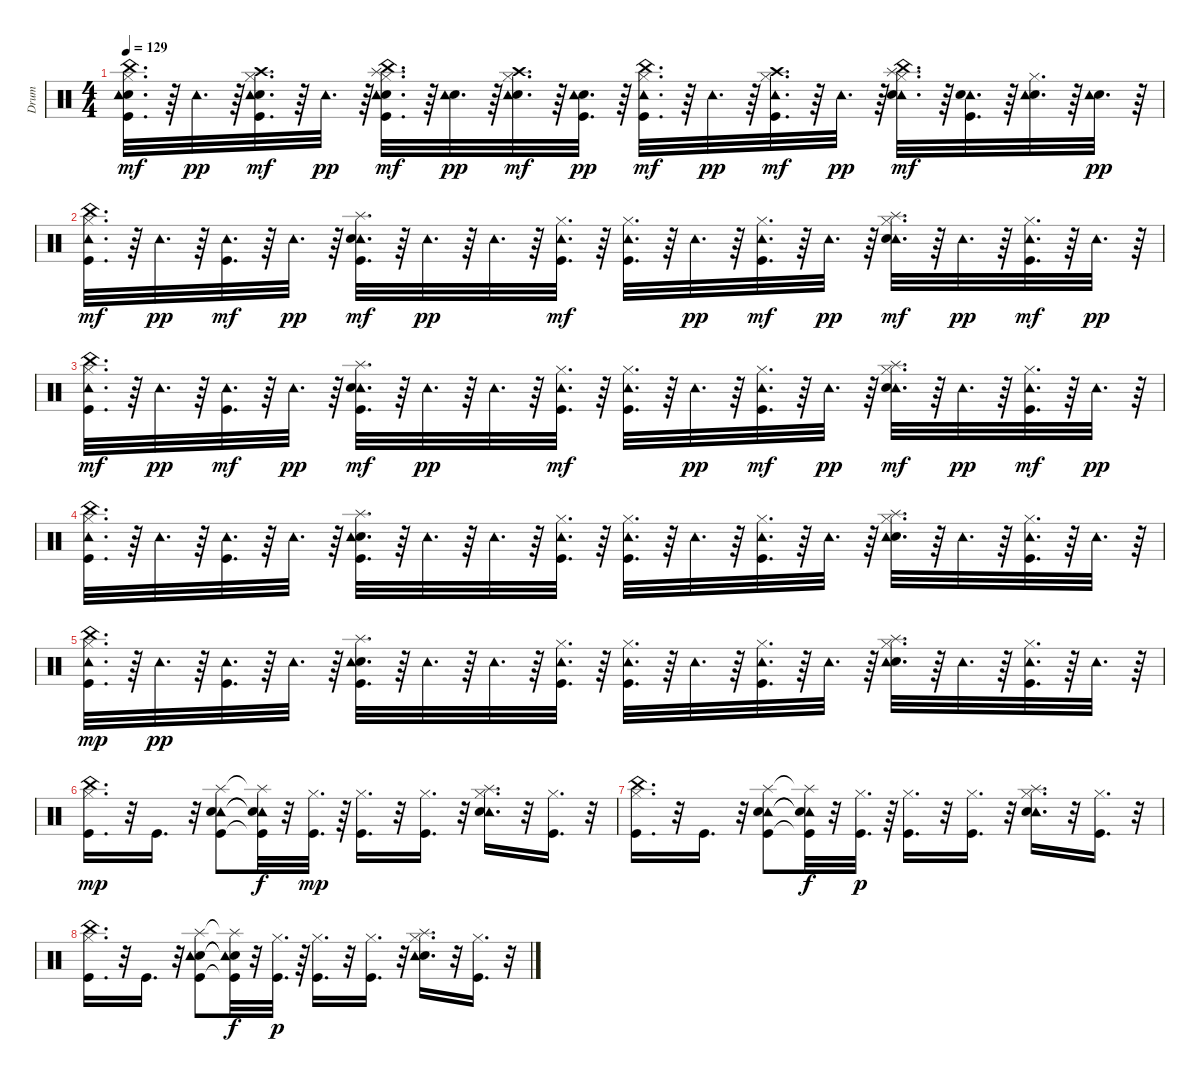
\track ("Drum" "Drum") {instrument percussion}
\staff {score}
\articulation defaults
\ts (4 4)
\tempo 129
\clef neutral
\ks c
("China (hit)" "Snare (hit) 2" "Tambourine (hit)" "Kick (hit)" "Hi-Hat (closed)").32{d dy mf} r.64 "Tambourine (hit)".32{d dy pp} r.64 ("Crash high (hit)" "Snare (hit) 2" "Kick (hit)" "Tambourine (hit)" "Hi-Hat (closed)").32{d dy mf} r.64 "Tambourine (hit)".32{d dy pp} r.64 ("China (hit)" "Snare (hit) 2" "Splash (hit)" "Kick (hit)" "Tambourine (hit)" "Hi-Hat (closed)").32{d dy mf} r.64 ("Snare (hit) 2" "Tambourine (hit)").32{d dy pp} r.64 ("Crash high (hit)" "Snare (hit) 2" "Tambourine (hit)" "Hi-Hat (closed)").32{d dy mf} r.64 ("Snare (hit) 2" "Kick (hit)" "Tambourine (hit)").32{d dy pp} r.64 ("China (hit)" "Tambourine (hit)" "Hi-Hat (closed)" "Kick (hit)").32{d dy mf} r.64 "Tambourine (hit)".32{d dy pp} r.64 ("Crash high (hit)" "Tambourine (hit)" "Hi-Hat (closed)" "Kick (hit)").32{d dy mf} r.64 "Tambourine (hit)".32{d dy pp} r.64 ("China (hit)" "Tambourine (hit)" "Hi-Hat (closed)" "Snare (hit) 2" "Splash (hit)").32{d dy mf} r.64 ("Tambourine (hit)" "Snare (hit) 2" "Kick (hit)").32{d} r.64 ("Snare (hit) 2" "Tambourine (hit)" "Hi-Hat (closed)").32{d} r.64 ("Snare (hit) 2" "Tambourine (hit)").32{d dy pp} r.64 |
("China (hit)" "Tambourine (hit)" "Hi-Hat (closed)" "Kick (hit)").32{d dy mf} r.64 "Tambourine (hit)".32{d dy pp} r.64 ("Tambourine (hit)" "Kick (hit)").32{d dy mf} r.64 "Tambourine (hit)".32{d dy pp} r.64 ("Tambourine (hit)" "Kick (hit)" "Snare (hit) 2" "Splash (hit)").32{d dy mf} r.64 "Tambourine (hit)".32{d dy pp} r.64 "Tambourine (hit)".32{d} r.64 ("Tambourine (hit)" "Hi-Hat (closed)" "Kick (hit)").32{d dy mf} r.64 ("Tambourine (hit)" "Hi-Hat (closed)" "Kick (hit)").32{d} r.64 "Tambourine (hit)".32{d dy pp} r.64 ("Tambourine (hit)" "Hi-Hat (closed)" "Kick (hit)").32{d dy mf} r.64 "Tambourine (hit)".32{d dy pp} r.64 ("Tambourine (hit)" "Hi-Hat (closed)" "Snare (hit) 2" "Splash (hit)").32{d dy mf} r.64 "Tambourine (hit)".32{d dy pp} r.64 ("Tambourine (hit)" "Hi-Hat (closed)" "Kick (hit)").32{d dy mf} r.64 "Tambourine (hit)".32{d dy pp} r.64 |
("China (hit)" "Tambourine (hit)" "Hi-Hat (closed)" "Kick (hit)").32{d dy mf} r.64 "Tambourine (hit)".32{d dy pp} r.64 ("Tambourine (hit)" "Kick (hit)").32{d dy mf} r.64 "Tambourine (hit)".32{d dy pp} r.64 ("Tambourine (hit)" "Kick (hit)" "Snare (hit) 2" "Splash (hit)").32{d dy mf} r.64 "Tambourine (hit)".32{d dy pp} r.64 "Tambourine (hit)".32{d} r.64 ("Tambourine (hit)" "Hi-Hat (closed)" "Kick (hit)").32{d dy mf} r.64 ("Tambourine (hit)" "Hi-Hat (closed)" "Kick (hit)").32{d} r.64 "Tambourine (hit)".32{d dy pp} r.64 ("Tambourine (hit)" "Hi-Hat (closed)" "Kick (hit)").32{d dy mf} r.64 "Tambourine (hit)".32{d dy pp} r.64 ("Tambourine (hit)" "Hi-Hat (closed)" "Snare (hit) 2" "Splash (hit)").32{d dy mf} r.64 "Tambourine (hit)".32{d dy pp} r.64 ("Tambourine (hit)" "Hi-Hat (closed)" "Kick (hit)").32{d dy mf} r.64 "Tambourine (hit)".32{d dy pp} r.64 |
("China (hit)" "Kick (hit)" "Hi-Hat (closed)" "Tambourine (hit)").32{d} r.64 "Tambourine (hit)".32{d} r.64 ("Kick (hit)" "Tambourine (hit)").32{d} r.64 "Tambourine (hit)".32{d} r.64 ("Splash (hit)" "Snare (hit) 2" "Kick (hit)" "Tambourine (hit)").32{d} r.64 "Tambourine (hit)".32{d} r.64 "Tambourine (hit)".32{d} r.64 ("Kick (hit)" "Hi-Hat (closed)" "Tambourine (hit)").32{d} r.64 ("Kick (hit)" "Hi-Hat (closed)" "Tambourine (hit)").32{d} r.64 "Tambourine (hit)".32{d} r.64 ("Kick (hit)" "Hi-Hat (closed)" "Tambourine (hit)").32{d} r.64 "Tambourine (hit)".32{d} r.64 ("Splash (hit)" "Snare (hit) 2" "Hi-Hat (closed)" "Tambourine (hit)").32{d} r.64 "Tambourine (hit)".32{d} r.64 ("Kick (hit)" "Hi-Hat (closed)" "Tambourine (hit)").32{d} r.64 "Tambourine (hit)".32{d} r.64 |
("Kick (hit)" "Hi-Hat (closed)" "Tambourine (hit)" "China (hit)").32{d dy mp} r.64 "Tambourine (hit)".32{d dy pp} r.64 ("Kick (hit)" "Tambourine (hit)").32{d} r.64 "Tambourine (hit)".32{d} r.64 ("Splash (hit)" "Snare (hit) 2" "Kick (hit)" "Tambourine (hit)").32{d} r.64 "Tambourine (hit)".32{d} r.64 "Tambourine (hit)".32{d} r.64 ("Kick (hit)" "Hi-Hat (closed)" "Tambourine (hit)").32{d} r.64 ("Kick (hit)" "Hi-Hat (closed)" "Tambourine (hit)").32{d} r.64 "Tambourine (hit)".32{d} r.64 ("Kick (hit)" "Hi-Hat (closed)" "Tambourine (hit)").32{d} r.64 "Tambourine (hit)".32{d} r.64 ("Splash (hit)" "Snare (hit) 2" "Hi-Hat (closed)" "Tambourine (hit)").32{d} r.64 "Tambourine (hit)".32{d} r.64 ("Kick (hit)" "Hi-Hat (closed)" "Tambourine (hit)").32{d} r.64 "Tambourine (hit)".32{d} r.64 |
("China (hit)" "Hi-Hat (closed)" "Kick (hit)").16{d dy mp} r.32 "Kick (hit)".16{d} r.32 ("Splash (hit)" "Tambourine (hit)" "Kick (hit)" "Snare (hit) 2").8 ("Splash (hit)"{t} "Tambourine (hit)"{t} "Kick (hit)"{t} "Snare (hit) 2"{t}).32{dy f} r.32 ("Kick (hit)" "Hi-Hat (closed)").32{d dy mp} r.64 ("Kick (hit)" "Hi-Hat (closed)").16{d} r.32 ("Kick (hit)" "Hi-Hat (closed)").16{d} r.32 ("Splash (hit)" "Tambourine (hit)" "Snare (hit) 2" "Hi-Hat (closed)").16{d} r.32 ("Kick (hit)" "Hi-Hat (closed)").16{d} r.32 |
("China (hit)" "Hi-Hat (closed)" "Kick (hit)").16{d} r.32 "Kick (hit)".16{d} r.32 ("Splash (hit)" "Tambourine (hit)" "Kick (hit)" "Snare (hit) 2").8 ("Splash (hit)"{t} "Tambourine (hit)"{t} "Kick (hit)"{t} "Snare (hit) 2"{t}).32{dy f} r.32 ("Kick (hit)" "Hi-Hat (closed)").32{d dy p} r.64 ("Kick (hit)" "Hi-Hat (closed)").16{d} r.32 ("Kick (hit)" "Hi-Hat (closed)").16{d} r.32 ("Splash (hit)" "Tambourine (hit)" "Snare (hit) 2" "Hi-Hat (closed)").16{d} r.32 ("Kick (hit)" "Hi-Hat (closed)").16{d} r.32 |
("China (hit)" "Kick (hit)" "Hi-Hat (closed)").16{d} r.32 "Kick (hit)".16{d} r.32 ("Splash (hit)" "Snare (hit) 2" "Kick (hit)" "Tambourine (hit)").8 ("Splash (hit)"{t} "Snare (hit) 2"{t} "Kick (hit)"{t} "Tambourine (hit)"{t}).32{dy f} r.32 ("Hi-Hat (closed)" "Kick (hit)").32{d dy p} r.64 ("Hi-Hat (closed)" "Kick (hit)").16{d} r.32 ("Hi-Hat (closed)" "Kick (hit)").16{d} r.32 ("Splash (hit)" "Hi-Hat (closed)" "Snare (hit) 2" "Tambourine (hit)").16{d} r.32 ("Hi-Hat (closed)" "Kick (hit)").16{d} r.32
